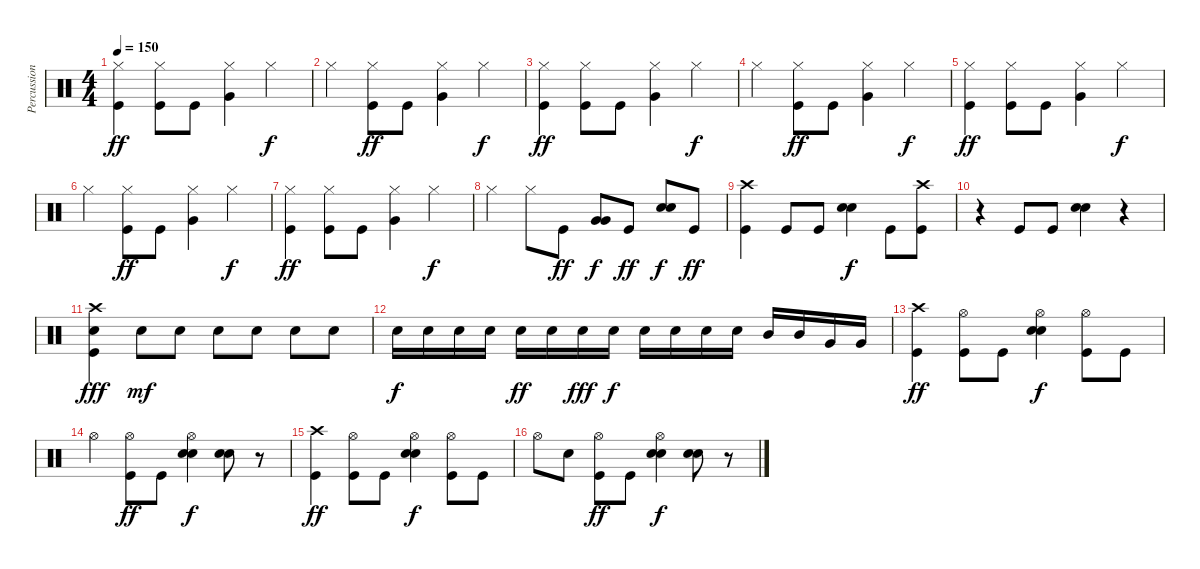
\track ("Percussion" "Percussion") {instrument percussion}
\staff {score}
\articulation defaults
\ts (4 4)
\tempo 150
\clef neutral
\ks c
("Hi-Hat (closed)" "Kick (hit)").4{dy ff} ("Hi-Hat (closed)" "Kick (hit)").8 "Kick (hit)".8 ("Hi-Hat (closed)" "Very Low Tom (hit)").4 "Hi-Hat (closed)".4{dy f} |
"Hi-Hat (closed)".4 ("Hi-Hat (closed)" "Kick (hit)").8{dy ff} "Kick (hit)".8 ("Hi-Hat (closed)" "Very Low Tom (hit)").4 "Hi-Hat (closed)".4{dy f} |
("Hi-Hat (closed)" "Kick (hit)").4{dy ff} ("Hi-Hat (closed)" "Kick (hit)").8 "Kick (hit)".8 ("Hi-Hat (closed)" "Very Low Tom (hit)").4 "Hi-Hat (closed)".4{dy f} |
"Hi-Hat (closed)".4 ("Hi-Hat (closed)" "Kick (hit)").8{dy ff} "Kick (hit)".8 ("Hi-Hat (closed)" "Very Low Tom (hit)").4 "Hi-Hat (closed)".4{dy f} |
("Hi-Hat (closed)" "Kick (hit)").4{dy ff} ("Hi-Hat (closed)" "Kick (hit)").8 "Kick (hit)".8 ("Hi-Hat (closed)" "Very Low Tom (hit)").4 "Hi-Hat (closed)".4{dy f} |
"Hi-Hat (closed)".4 ("Hi-Hat (closed)" "Kick (hit)").8{dy ff} "Kick (hit)".8 ("Hi-Hat (closed)" "Very Low Tom (hit)").4 "Hi-Hat (closed)".4{dy f} |
("Hi-Hat (closed)" "Kick (hit)").4{dy ff} ("Hi-Hat (closed)" "Kick (hit)").8 "Kick (hit)".8 ("Hi-Hat (closed)" "Very Low Tom (hit)").4 "Hi-Hat (closed)".4{dy f} |
"Hi-Hat (closed)".4 "Hi-Hat (closed)".8 "Kick (hit)".8{dy ff} ("Very Low Tom (hit)" "Very Low Tom (hit)").8{dy f} "Kick (hit)".8{dy ff} ("Snare (hit) 2" "Snare (hit) 2").8{dy f} "Kick (hit)".8{dy ff} |
("Crash high (hit)" "Kick (hit)").4 "Kick (hit)".8 "Kick (hit)".8 ("Snare (hit) 2" "Snare (hit) 2").4{dy f} "Kick (hit)".8 ("Crash high (hit)" "Kick (hit)").8 |
r.4 "Kick (hit)".8 "Kick (hit)".8 ("Snare (hit) 2" "Snare (hit) 2").4 r.4 |
("Crash high (hit)" "Snare (hit) 2" "Kick (hit)").4{dy fff} "Snare (hit) 2".8{dy mf} "Snare (hit) 2".8 "Snare (hit) 2".8 "Snare (hit) 2".8 "Snare (hit) 2".8 "Snare (hit) 2".8 |
"Snare (hit) 2".16{dy f} "Snare (hit) 2".16 "Snare (hit) 2".16 "Snare (hit) 2".16 "Snare (hit) 2".16{dy ff} "Snare (hit) 2".16 "Snare (hit) 2".16{dy fff} "Snare (hit) 2".16{dy f} "Snare (hit) 2".16 "Snare (hit) 2".16 "Snare (hit) 2".16 "Snare (hit) 2".16 "Mid Tom (hit)".16 "Mid Tom (hit)".16 "Very Low Tom (hit)".16 "Very Low Tom (hit)".16 |
("Crash high (hit)" "Kick (hit)").4{dy ff} ("Hi-Hat (open)" "Kick (hit)").8 "Kick (hit)".8 ("Hi-Hat (open)" "Snare (hit) 2" "Snare (hit) 2").4{dy f} ("Hi-Hat (open)" "Kick (hit)").8 "Kick (hit)".8 |
"Hi-Hat (open)".4 ("Hi-Hat (open)" "Kick (hit)").8{dy ff} "Kick (hit)".8 ("Hi-Hat (open)" "Snare (hit) 2" "Snare (hit) 2").4{dy f} ("Snare (hit) 2" "Snare (hit) 2").8 r.8 |
("Crash high (hit)" "Kick (hit)").4{dy ff} ("Hi-Hat (open)" "Kick (hit)").8 "Kick (hit)".8 ("Hi-Hat (open)" "Snare (hit) 2" "Snare (hit) 2").4{dy f} ("Hi-Hat (open)" "Kick (hit)").8 "Kick (hit)".8 |
"Hi-Hat (open)".8 "Snare (hit) 2".8 ("Hi-Hat (open)" "Kick (hit)").8{dy ff} "Kick (hit)".8 ("Hi-Hat (open)" "Snare (hit) 2" "Snare (hit) 2").4{dy f} ("Snare (hit) 2" "Snare (hit) 2").8 r.8
